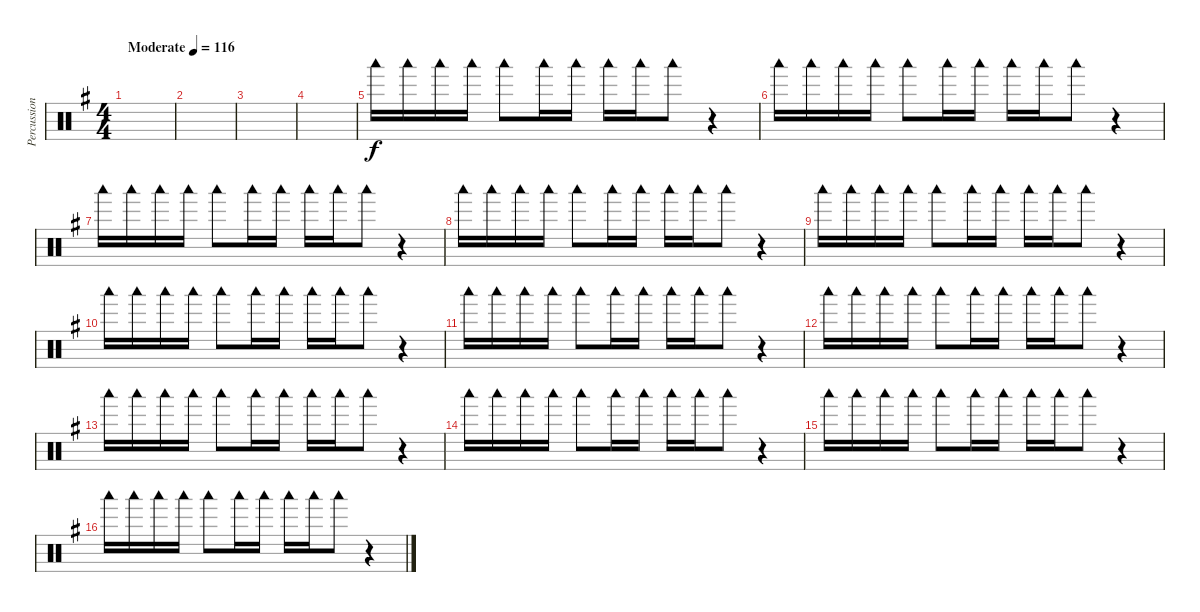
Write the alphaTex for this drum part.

\track ("Percussion" "Percussion") {instrument percussion}
\staff {score}
\articulation defaults
\ts (4 4)
\tempo (116 "Moderate")
\clef neutral
\ks g
|
|
|
|
"Woodblock low (hit)".16 "Woodblock low (hit)".16 "Woodblock low (hit)".16 "Woodblock low (hit)".16 "Woodblock low (hit)".8 "Woodblock low (hit)".16 "Woodblock low (hit)".16 "Woodblock low (hit)".16 "Woodblock low (hit)".16 "Woodblock low (hit)".8 r.4 |
"Woodblock low (hit)".16 "Woodblock low (hit)".16 "Woodblock low (hit)".16 "Woodblock low (hit)".16 "Woodblock low (hit)".8 "Woodblock low (hit)".16 "Woodblock low (hit)".16 "Woodblock low (hit)".16 "Woodblock low (hit)".16 "Woodblock low (hit)".8 r.4 |
"Woodblock low (hit)".16 "Woodblock low (hit)".16 "Woodblock low (hit)".16 "Woodblock low (hit)".16 "Woodblock low (hit)".8 "Woodblock low (hit)".16 "Woodblock low (hit)".16 "Woodblock low (hit)".16 "Woodblock low (hit)".16 "Woodblock low (hit)".8 r.4 |
"Woodblock low (hit)".16 "Woodblock low (hit)".16 "Woodblock low (hit)".16 "Woodblock low (hit)".16 "Woodblock low (hit)".8 "Woodblock low (hit)".16 "Woodblock low (hit)".16 "Woodblock low (hit)".16 "Woodblock low (hit)".16 "Woodblock low (hit)".8 r.4 |
"Woodblock low (hit)".16 "Woodblock low (hit)".16 "Woodblock low (hit)".16 "Woodblock low (hit)".16 "Woodblock low (hit)".8 "Woodblock low (hit)".16 "Woodblock low (hit)".16 "Woodblock low (hit)".16 "Woodblock low (hit)".16 "Woodblock low (hit)".8 r.4 |
"Woodblock low (hit)".16 "Woodblock low (hit)".16 "Woodblock low (hit)".16 "Woodblock low (hit)".16 "Woodblock low (hit)".8 "Woodblock low (hit)".16 "Woodblock low (hit)".16 "Woodblock low (hit)".16 "Woodblock low (hit)".16 "Woodblock low (hit)".8 r.4 |
"Woodblock low (hit)".16 "Woodblock low (hit)".16 "Woodblock low (hit)".16 "Woodblock low (hit)".16 "Woodblock low (hit)".8 "Woodblock low (hit)".16 "Woodblock low (hit)".16 "Woodblock low (hit)".16 "Woodblock low (hit)".16 "Woodblock low (hit)".8 r.4 |
"Woodblock low (hit)".16 "Woodblock low (hit)".16 "Woodblock low (hit)".16 "Woodblock low (hit)".16 "Woodblock low (hit)".8 "Woodblock low (hit)".16 "Woodblock low (hit)".16 "Woodblock low (hit)".16 "Woodblock low (hit)".16 "Woodblock low (hit)".8 r.4 |
"Woodblock low (hit)".16 "Woodblock low (hit)".16 "Woodblock low (hit)".16 "Woodblock low (hit)".16 "Woodblock low (hit)".8 "Woodblock low (hit)".16 "Woodblock low (hit)".16 "Woodblock low (hit)".16 "Woodblock low (hit)".16 "Woodblock low (hit)".8 r.4 |
"Woodblock low (hit)".16 "Woodblock low (hit)".16 "Woodblock low (hit)".16 "Woodblock low (hit)".16 "Woodblock low (hit)".8 "Woodblock low (hit)".16 "Woodblock low (hit)".16 "Woodblock low (hit)".16 "Woodblock low (hit)".16 "Woodblock low (hit)".8 r.4 |
"Woodblock low (hit)".16 "Woodblock low (hit)".16 "Woodblock low (hit)".16 "Woodblock low (hit)".16 "Woodblock low (hit)".8 "Woodblock low (hit)".16 "Woodblock low (hit)".16 "Woodblock low (hit)".16 "Woodblock low (hit)".16 "Woodblock low (hit)".8 r.4 |
"Woodblock low (hit)".16 "Woodblock low (hit)".16 "Woodblock low (hit)".16 "Woodblock low (hit)".16 "Woodblock low (hit)".8 "Woodblock low (hit)".16 "Woodblock low (hit)".16 "Woodblock low (hit)".16 "Woodblock low (hit)".16 "Woodblock low (hit)".8 r.4
